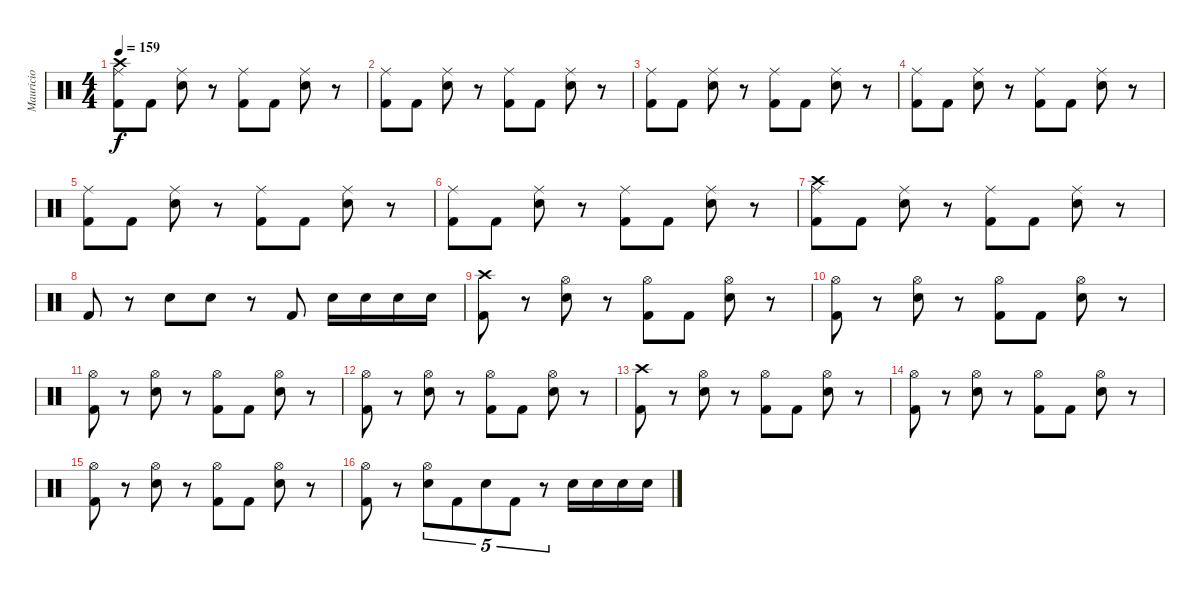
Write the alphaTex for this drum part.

\track ("Mauricio" "Mauricio") {instrument percussion}
\staff {score}
\articulation defaults
\ts (4 4)
\tempo 159
\clef neutral
\ks c
("Ride (middle)" "Crash high (hit)" "Kick (hit) 2").8{dy f} "Kick (hit) 2".8 ("Ride (middle)" "Snare (hit) 2").8 r.8 ("Ride (middle)" "Kick (hit) 2").8 "Kick (hit) 2".8 ("Ride (middle)" "Snare (hit) 2").8 r.8 |
("Ride (middle)" "Kick (hit) 2").8 "Kick (hit) 2".8 ("Ride (middle)" "Snare (hit) 2").8 r.8 ("Ride (middle)" "Kick (hit) 2").8 "Kick (hit) 2".8 ("Ride (middle)" "Snare (hit) 2").8 r.8 |
("Ride (middle)" "Kick (hit) 2").8 "Kick (hit) 2".8 ("Ride (middle)" "Snare (hit) 2").8 r.8 ("Ride (middle)" "Kick (hit) 2").8 "Kick (hit) 2".8 ("Ride (middle)" "Snare (hit) 2").8 r.8 |
("Ride (middle)" "Kick (hit) 2").8 "Kick (hit) 2".8 ("Ride (middle)" "Snare (hit) 2").8 r.8 ("Ride (middle)" "Kick (hit) 2").8 "Kick (hit) 2".8 ("Ride (middle)" "Snare (hit) 2").8 r.8 |
("Ride (middle)" "Kick (hit) 2").8 "Kick (hit) 2".8 ("Ride (middle)" "Snare (hit) 2").8 r.8 ("Ride (middle)" "Kick (hit) 2").8 "Kick (hit) 2".8 ("Ride (middle)" "Snare (hit) 2").8 r.8 |
("Ride (middle)" "Kick (hit) 2").8 "Kick (hit) 2".8 ("Ride (middle)" "Snare (hit) 2").8 r.8 ("Ride (middle)" "Kick (hit) 2").8 "Kick (hit) 2".8 ("Ride (middle)" "Snare (hit) 2").8 r.8 |
("Ride (middle)" "Crash high (hit)" "Kick (hit) 2").8 "Kick (hit) 2".8 ("Ride (middle)" "Snare (hit) 2").8 r.8 ("Ride (middle)" "Kick (hit) 2").8 "Kick (hit) 2".8 ("Ride (middle)" "Snare (hit) 2").8 r.8 |
"Kick (hit) 2".8 r.8 "Snare (hit) 2".8 "Snare (hit) 2".8 r.8 "Kick (hit) 2".8 "Snare (hit) 2".16 "Snare (hit) 2".16 "Snare (hit) 2".16 "Snare (hit) 2".16 |
("Crash high (hit)" "Kick (hit) 2").8 r.8 ("Hi-Hat (open)" "Snare (hit) 2").8 r.8 ("Hi-Hat (open)" "Kick (hit) 2").8 "Kick (hit) 2".8 ("Hi-Hat (open)" "Snare (hit) 2").8 r.8 |
("Hi-Hat (open)" "Kick (hit) 2").8 r.8 ("Hi-Hat (open)" "Snare (hit) 2").8 r.8 ("Hi-Hat (open)" "Kick (hit) 2").8 "Kick (hit) 2".8 ("Hi-Hat (open)" "Snare (hit) 2").8 r.8 |
("Hi-Hat (open)" "Kick (hit) 2").8 r.8 ("Hi-Hat (open)" "Snare (hit) 2").8 r.8 ("Hi-Hat (open)" "Kick (hit) 2").8 "Kick (hit) 2".8 ("Hi-Hat (open)" "Snare (hit) 2").8 r.8 |
("Hi-Hat (open)" "Kick (hit) 2").8 r.8 ("Hi-Hat (open)" "Snare (hit) 2").8 r.8 ("Hi-Hat (open)" "Kick (hit) 2").8 "Kick (hit) 2".8 ("Hi-Hat (open)" "Snare (hit) 2").8 r.8 |
("Crash high (hit)" "Kick (hit) 2").8 r.8 ("Hi-Hat (open)" "Snare (hit) 2").8 r.8 ("Hi-Hat (open)" "Kick (hit) 2").8 "Kick (hit) 2".8 ("Hi-Hat (open)" "Snare (hit) 2").8 r.8 |
("Hi-Hat (open)" "Kick (hit) 2").8 r.8 ("Hi-Hat (open)" "Snare (hit) 2").8 r.8 ("Hi-Hat (open)" "Kick (hit) 2").8 "Kick (hit) 2".8 ("Hi-Hat (open)" "Snare (hit) 2").8 r.8 |
("Hi-Hat (open)" "Kick (hit) 2").8 r.8 ("Hi-Hat (open)" "Snare (hit) 2").8 r.8 ("Hi-Hat (open)" "Kick (hit) 2").8 "Kick (hit) 2".8 ("Hi-Hat (open)" "Snare (hit) 2").8 r.8 |
("Hi-Hat (open)" "Kick (hit) 2").8 r.8 ("Hi-Hat (open)" "Snare (hit) 2").8{tu (5 4)} "Kick (hit) 2".8{tu (5 4)} "Snare (hit) 2".8{tu (5 4)} "Kick (hit) 2".8{tu (5 4)} r.8{tu (5 4)} "Snare (hit) 2".16 "Snare (hit) 2".16 "Snare (hit) 2".16 "Snare (hit) 2".16
